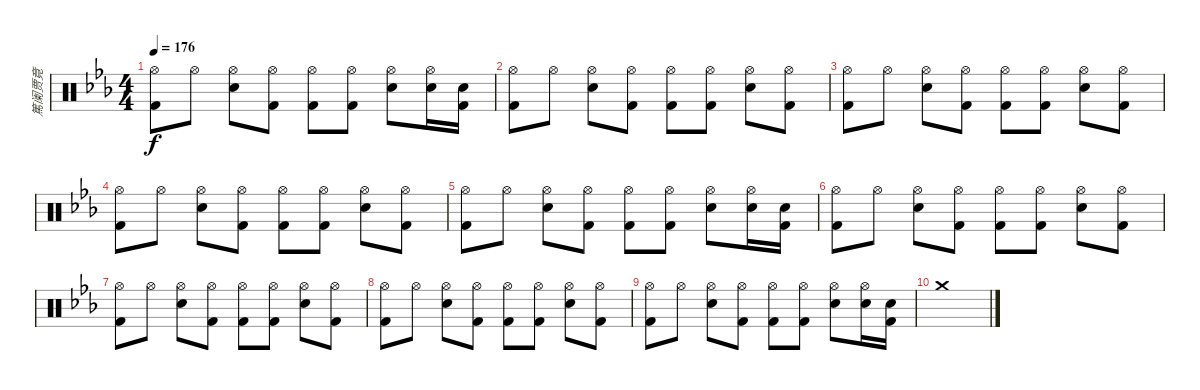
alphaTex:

\track ("篤阑贾竟" "篤阑贾竟") {instrument percussion}
\staff {score}
\articulation defaults
\ts (4 4)
\tempo 176
\clef neutral
\ks eb
("Hi-Hat (open)" "Kick (hit) 2").8{dy f} "Hi-Hat (open)".8 ("Hi-Hat (open)" "Snare (hit) 2").8 ("Hi-Hat (open)" "Kick (hit) 2").8 ("Hi-Hat (open)" "Kick (hit) 2").8 ("Hi-Hat (open)" "Kick (hit) 2").8 ("Hi-Hat (open)" "Snare (hit) 2").8 ("Hi-Hat (open)" "Snare (hit) 2").16 ("Snare (hit) 2" "Kick (hit) 2").16 |
("Hi-Hat (open)" "Kick (hit) 2").8 "Hi-Hat (open)".8 ("Hi-Hat (open)" "Snare (hit) 2").8 ("Hi-Hat (open)" "Kick (hit) 2").8 ("Hi-Hat (open)" "Kick (hit) 2").8 ("Hi-Hat (open)" "Kick (hit) 2").8 ("Hi-Hat (open)" "Snare (hit) 2").8 ("Hi-Hat (open)" "Kick (hit) 2").8 |
("Hi-Hat (open)" "Kick (hit) 2").8 "Hi-Hat (open)".8 ("Hi-Hat (open)" "Snare (hit) 2").8 ("Hi-Hat (open)" "Kick (hit) 2").8 ("Hi-Hat (open)" "Kick (hit) 2").8 ("Hi-Hat (open)" "Kick (hit) 2").8 ("Hi-Hat (open)" "Snare (hit) 2").8 ("Hi-Hat (open)" "Kick (hit) 2").8 |
("Hi-Hat (open)" "Kick (hit) 2").8 "Hi-Hat (open)".8 ("Hi-Hat (open)" "Snare (hit) 2").8 ("Hi-Hat (open)" "Kick (hit) 2").8 ("Hi-Hat (open)" "Kick (hit) 2").8 ("Hi-Hat (open)" "Kick (hit) 2").8 ("Hi-Hat (open)" "Snare (hit) 2").8 ("Hi-Hat (open)" "Kick (hit) 2").8 |
("Hi-Hat (open)" "Kick (hit) 2").8 "Hi-Hat (open)".8 ("Hi-Hat (open)" "Snare (hit) 2").8 ("Hi-Hat (open)" "Kick (hit) 2").8 ("Hi-Hat (open)" "Kick (hit) 2").8 ("Hi-Hat (open)" "Kick (hit) 2").8 ("Hi-Hat (open)" "Snare (hit) 2").8 ("Hi-Hat (open)" "Snare (hit) 2").16 ("Snare (hit) 2" "Kick (hit) 2").16 |
("Hi-Hat (open)" "Kick (hit) 2").8 "Hi-Hat (open)".8 ("Hi-Hat (open)" "Snare (hit) 2").8 ("Hi-Hat (open)" "Kick (hit) 2").8 ("Hi-Hat (open)" "Kick (hit) 2").8 ("Hi-Hat (open)" "Kick (hit) 2").8 ("Hi-Hat (open)" "Snare (hit) 2").8 ("Hi-Hat (open)" "Kick (hit) 2").8 |
("Hi-Hat (open)" "Kick (hit) 2").8 "Hi-Hat (open)".8 ("Hi-Hat (open)" "Snare (hit) 2").8 ("Hi-Hat (open)" "Kick (hit) 2").8 ("Hi-Hat (open)" "Kick (hit) 2").8 ("Hi-Hat (open)" "Kick (hit) 2").8 ("Hi-Hat (open)" "Snare (hit) 2").8 ("Hi-Hat (open)" "Kick (hit) 2").8 |
("Hi-Hat (open)" "Kick (hit) 2").8 "Hi-Hat (open)".8 ("Hi-Hat (open)" "Snare (hit) 2").8 ("Hi-Hat (open)" "Kick (hit) 2").8 ("Hi-Hat (open)" "Kick (hit) 2").8 ("Hi-Hat (open)" "Kick (hit) 2").8 ("Hi-Hat (open)" "Snare (hit) 2").8 ("Hi-Hat (open)" "Kick (hit) 2").8 |
("Hi-Hat (open)" "Kick (hit) 2").8 "Hi-Hat (open)".8 ("Hi-Hat (open)" "Snare (hit) 2").8 ("Hi-Hat (open)" "Kick (hit) 2").8 ("Hi-Hat (open)" "Kick (hit) 2").8 ("Hi-Hat (open)" "Kick (hit) 2").8 ("Hi-Hat (open)" "Snare (hit) 2").8 ("Hi-Hat (open)" "Snare (hit) 2").16 ("Snare (hit) 2" "Kick (hit) 2").16 |
"Crash medium (hit)".1
